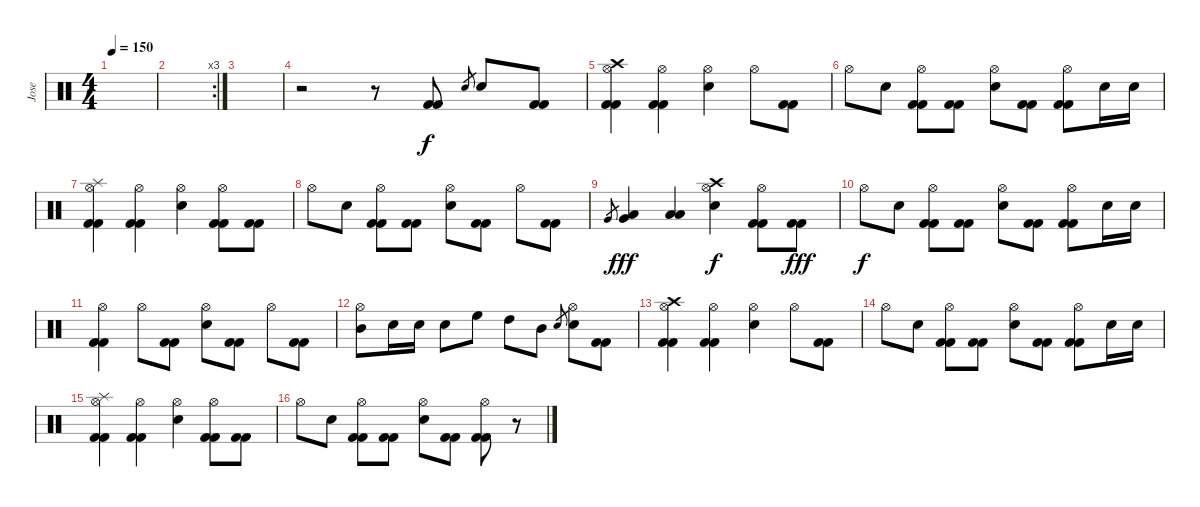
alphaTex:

\track ("Jose" "Jose") {instrument percussion}
\staff {score}
\articulation defaults
\ts (4 4)
\tempo 150
\clef neutral
\ks c
|
\rc 3
|
|
r.2 r.8 ("Kick (hit) 2" "Kick (hit) 2").8 "Electric Snare (hit)".8{gr} "Electric Snare (hit)".8 ("Kick (hit) 2" "Kick (hit) 2").8 |
("Hi-Hat (open)" "Crash high (hit)" "Kick (hit) 2" "Kick (hit) 2").4 ("Hi-Hat (open)" "Kick (hit) 2" "Kick (hit) 2").4 ("Hi-Hat (open)" "Electric Snare (hit)").4 "Hi-Hat (open)".8 ("Kick (hit) 2" "Kick (hit) 2").8 |
"Hi-Hat (open)".8 "Electric Snare (hit)".8 ("Hi-Hat (open)" "Kick (hit) 2" "Kick (hit) 2").8 ("Kick (hit) 2" "Kick (hit) 2").8 ("Hi-Hat (open)" "Electric Snare (hit)").8 ("Kick (hit) 2" "Kick (hit) 2").8 ("Hi-Hat (open)" "Kick (hit) 2" "Kick (hit) 2").8 "Electric Snare (hit)".16 "Electric Snare (hit)".16 |
("Hi-Hat (open)" "Splash (hit)" "Kick (hit) 2" "Kick (hit) 2").4 ("Hi-Hat (open)" "Kick (hit) 2" "Kick (hit) 2").4 ("Hi-Hat (open)" "Electric Snare (hit)").4 ("Hi-Hat (open)" "Kick (hit) 2" "Kick (hit) 2").8 ("Kick (hit) 2" "Kick (hit) 2").8 |
"Hi-Hat (open)".8 "Electric Snare (hit)".8 ("Hi-Hat (open)" "Kick (hit) 2" "Kick (hit) 2").8 ("Kick (hit) 2" "Kick (hit) 2").8 ("Hi-Hat (open)" "Electric Snare (hit)").8 ("Kick (hit) 2" "Kick (hit) 2").8 "Hi-Hat (open)".8 ("Kick (hit) 2" "Kick (hit) 2").8 |
"Very Low Tom (hit)".8{gr} ("Low Tom (hit)" "Very Low Tom (hit)").4{dy fff} ("Low Tom (hit)" "Low Floor Tom (hit)").4 ("Hi-Hat (open)" "Crash high (hit)" "Electric Snare (hit)").4{dy f} ("Hi-Hat (open)" "Kick (hit) 2" "Kick (hit) 2").8 ("Kick (hit) 2" "Kick (hit) 2").8{dy fff} |
"Hi-Hat (open)".8{dy f} "Electric Snare (hit)".8 ("Hi-Hat (open)" "Kick (hit) 2" "Kick (hit) 2").8 ("Kick (hit) 2" "Kick (hit) 2").8 ("Hi-Hat (open)" "Electric Snare (hit)").8 ("Kick (hit) 2" "Kick (hit) 2").8 ("Hi-Hat (open)" "Kick (hit) 2" "Kick (hit) 2").8 "Electric Snare (hit)".16 "Electric Snare (hit)".16 |
("Hi-Hat (open)" "Kick (hit) 2" "Kick (hit) 2").4 "Hi-Hat (open)".8 ("Kick (hit) 2" "Kick (hit) 2").8 ("Hi-Hat (open)" "Electric Snare (hit)").8 ("Kick (hit) 2" "Kick (hit) 2").8 "Hi-Hat (open)".8 ("Kick (hit) 2" "Kick (hit) 2").8 |
("Hi-Hat (open)" "Mid Tom (hit)").8 "Electric Snare (hit)".16 "Electric Snare (hit)".16 "Electric Snare (hit)".8 "High Floor Tom (hit)".8 "High Tom (hit)".8 "Mid Tom (hit)".8 "Electric Snare (hit)".8{gr} ("Hi-Hat (open)" "Electric Snare (hit)").8 ("Kick (hit) 2" "Kick (hit) 2").8 |
("Hi-Hat (open)" "Crash high (hit)" "Kick (hit) 2" "Kick (hit) 2").4 ("Hi-Hat (open)" "Kick (hit) 2" "Kick (hit) 2").4 ("Hi-Hat (open)" "Electric Snare (hit)").4 "Hi-Hat (open)".8 ("Kick (hit) 2" "Kick (hit) 2").8 |
"Hi-Hat (open)".8 "Electric Snare (hit)".8 ("Hi-Hat (open)" "Kick (hit) 2" "Kick (hit) 2").8 ("Kick (hit) 2" "Kick (hit) 2").8 ("Hi-Hat (open)" "Electric Snare (hit)").8 ("Kick (hit) 2" "Kick (hit) 2").8 ("Hi-Hat (open)" "Kick (hit) 2" "Kick (hit) 2").8 "Electric Snare (hit)".16 "Electric Snare (hit)".16 |
("Hi-Hat (open)" "Splash (hit)" "Kick (hit) 2" "Kick (hit) 2").4 ("Hi-Hat (open)" "Kick (hit) 2" "Kick (hit) 2").4 ("Hi-Hat (open)" "Electric Snare (hit)").4 ("Hi-Hat (open)" "Kick (hit) 2" "Kick (hit) 2").8 ("Kick (hit) 2" "Kick (hit) 2").8 |
"Hi-Hat (open)".8 "Electric Snare (hit)".8 ("Hi-Hat (open)" "Kick (hit) 2" "Kick (hit) 2").8 ("Kick (hit) 2" "Kick (hit) 2").8 ("Hi-Hat (open)" "Electric Snare (hit)").8 ("Kick (hit) 2" "Kick (hit) 2").8 ("Hi-Hat (open)" "Kick (hit) 2" "Kick (hit) 2").8 r.8
